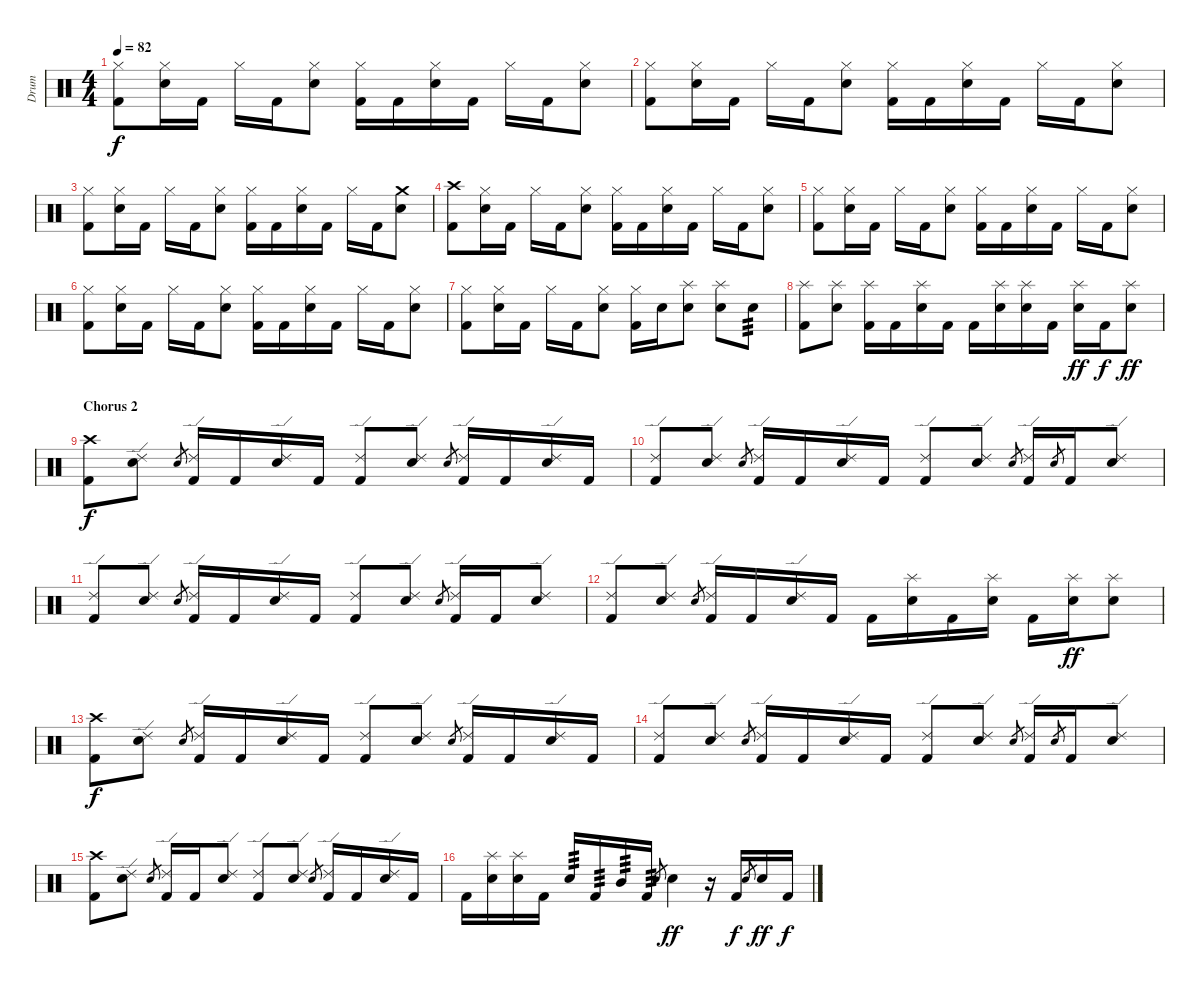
\track ("Drum" "Drum") {instrument percussion}
\staff {score}
\articulation defaults
\ts (4 4)
\tempo 82
\clef neutral
\ks c
("Hi-Hat (closed)" "Kick (hit) 2").8{dy f} ("Hi-Hat (closed)" "Electric Snare (hit)").16 "Kick (hit) 2".16 "Hi-Hat (closed)".16 "Kick (hit) 2".16 ("Hi-Hat (closed)" "Electric Snare (hit)").8 ("Hi-Hat (closed)" "Kick (hit) 2").16 "Kick (hit) 2".16 ("Hi-Hat (closed)" "Electric Snare (hit)").16 "Kick (hit) 2".16 "Hi-Hat (closed)".16 "Kick (hit) 2".16 ("Hi-Hat (closed)" "Electric Snare (hit)").8 |
("Hi-Hat (closed)" "Kick (hit) 2").8 ("Hi-Hat (closed)" "Electric Snare (hit)").16 "Kick (hit) 2".16 "Hi-Hat (closed)".16 "Kick (hit) 2".16 ("Hi-Hat (closed)" "Electric Snare (hit)").8 ("Hi-Hat (closed)" "Kick (hit) 2").16 "Kick (hit) 2".16 ("Hi-Hat (closed)" "Electric Snare (hit)").16 "Kick (hit) 2".16 "Hi-Hat (closed)".16 "Kick (hit) 2".16 ("Hi-Hat (closed)" "Electric Snare (hit)").8 |
("Hi-Hat (closed)" "Kick (hit) 2").8 ("Hi-Hat (closed)" "Electric Snare (hit)").16 "Kick (hit) 2".16 "Hi-Hat (closed)".16 "Kick (hit) 2".16 ("Hi-Hat (closed)" "Electric Snare (hit)").8 ("Hi-Hat (closed)" "Kick (hit) 2").16 "Kick (hit) 2".16 ("Hi-Hat (closed)" "Electric Snare (hit)").16 "Kick (hit) 2".16 "Hi-Hat (closed)".16 "Kick (hit) 2".16 ("Electric Snare (hit)" "Crash medium (hit)").8 |
\section ("" "")
("Kick (hit) 2" "Crash high (hit)").8 ("Hi-Hat (closed)" "Electric Snare (hit)").16 "Kick (hit) 2".16 "Hi-Hat (closed)".16 "Kick (hit) 2".16 ("Hi-Hat (closed)" "Electric Snare (hit)").8 ("Hi-Hat (closed)" "Kick (hit) 2").16 "Kick (hit) 2".16 ("Hi-Hat (closed)" "Electric Snare (hit)").16 "Kick (hit) 2".16 "Hi-Hat (closed)".16 "Kick (hit) 2".16 ("Hi-Hat (closed)" "Electric Snare (hit)").8 |
("Hi-Hat (closed)" "Kick (hit) 2").8 ("Hi-Hat (closed)" "Electric Snare (hit)").16 "Kick (hit) 2".16 "Hi-Hat (closed)".16 "Kick (hit) 2".16 ("Hi-Hat (closed)" "Electric Snare (hit)").8 ("Hi-Hat (closed)" "Kick (hit) 2").16 "Kick (hit) 2".16 ("Hi-Hat (closed)" "Electric Snare (hit)").16 "Kick (hit) 2".16 "Hi-Hat (closed)".16 "Kick (hit) 2".16 ("Hi-Hat (closed)" "Electric Snare (hit)").8 |
("Hi-Hat (closed)" "Kick (hit) 2").8 ("Hi-Hat (closed)" "Electric Snare (hit)").16 "Kick (hit) 2".16 "Hi-Hat (closed)".16 "Kick (hit) 2".16 ("Hi-Hat (closed)" "Electric Snare (hit)").8 ("Hi-Hat (closed)" "Kick (hit) 2").16 "Kick (hit) 2".16 ("Hi-Hat (closed)" "Electric Snare (hit)").16 "Kick (hit) 2".16 "Hi-Hat (closed)".16 "Kick (hit) 2".16 ("Hi-Hat (closed)" "Electric Snare (hit)").8 |
("Hi-Hat (closed)" "Kick (hit) 2").8 ("Hi-Hat (closed)" "Electric Snare (hit)").16 "Kick (hit) 2".16 "Hi-Hat (closed)".16 "Kick (hit) 2".16 ("Hi-Hat (closed)" "Electric Snare (hit)").8 ("Hi-Hat (closed)" "Kick (hit) 2").16 "Electric Snare (hit)".16 ("Splash (hit)" "Electric Snare (hit)").8 ("Splash (hit)" "Electric Snare (hit)").8 "Electric Snare (hit)".8{tp 3} |
("Splash (hit)" "Kick (hit) 2").8 ("Splash (hit)" "Electric Snare (hit)").8 ("Splash (hit)" "Kick (hit) 2").16 "Kick (hit) 2".16 ("Splash (hit)" "Electric Snare (hit)").16 "Kick (hit) 2".16 "Kick (hit) 2".16 ("Splash (hit)" "Electric Snare (hit)").16 ("Splash (hit)" "Electric Snare (hit)").16 "Kick (hit) 2".16 ("Splash (hit)" "Electric Snare (hit)").16{dy ff} "Kick (hit) 2".16{dy f} ("Splash (hit)" "Electric Snare (hit)").8{dy ff} |
\section ("" "Chorus 2")
("Kick (hit) 2" "Crash high (hit)").8{dy f} ("Ride (edge) 2" "Electric Snare (hit)").8 "Electric Snare (hit)".8{gr} ("Ride (edge) 2" "Kick (hit) 2").16 "Kick (hit) 2".16 ("Ride (edge) 2" "Electric Snare (hit)").16 "Kick (hit) 2".16 ("Ride (edge) 2" "Kick (hit) 2").8 ("Ride (edge) 2" "Electric Snare (hit)").8 "Electric Snare (hit)".8{gr} ("Ride (edge) 2" "Kick (hit) 2").16 "Kick (hit) 2".16 ("Ride (edge) 2" "Electric Snare (hit)").16 "Kick (hit) 2".16 |
("Ride (edge) 2" "Kick (hit) 2").8 ("Ride (edge) 2" "Electric Snare (hit)").8 "Electric Snare (hit)".8{gr} ("Ride (edge) 2" "Kick (hit) 2").16 "Kick (hit) 2".16 ("Ride (edge) 2" "Electric Snare (hit)").16 "Kick (hit) 2".16 ("Ride (edge) 2" "Kick (hit) 2").8 ("Ride (edge) 2" "Electric Snare (hit)").8 "Electric Snare (hit)".8{gr} ("Ride (edge) 2" "Kick (hit) 2").16 "Electric Snare (hit)".8{gr} "Kick (hit) 2".16 ("Ride (edge) 2" "Electric Snare (hit)").8 |
("Ride (edge) 2" "Kick (hit) 2").8 ("Ride (edge) 2" "Electric Snare (hit)").8 "Electric Snare (hit)".8{gr} ("Ride (edge) 2" "Kick (hit) 2").16 "Kick (hit) 2".16 ("Ride (edge) 2" "Electric Snare (hit)").16 "Kick (hit) 2".16 ("Ride (edge) 2" "Kick (hit) 2").8 ("Ride (edge) 2" "Electric Snare (hit)").8 "Electric Snare (hit)".8{gr} ("Ride (edge) 2" "Kick (hit) 2").16 "Kick (hit) 2".16 ("Ride (edge) 2" "Electric Snare (hit)").8 |
("Ride (edge) 2" "Kick (hit) 2").8 ("Ride (edge) 2" "Electric Snare (hit)").8 "Electric Snare (hit)".8{gr} ("Ride (edge) 2" "Kick (hit) 2").16 "Kick (hit) 2".16 ("Ride (edge) 2" "Electric Snare (hit)").16 "Kick (hit) 2".16 "Kick (hit) 2".16 ("Splash (hit)" "Electric Snare (hit)").16 "Kick (hit) 2".16 ("Splash (hit)" "Electric Snare (hit)").16 "Kick (hit) 2".16 ("Splash (hit)" "Electric Snare (hit)").16{dy ff} ("Splash (hit)" "Electric Snare (hit)").8 |
\section ("" "")
("Kick (hit) 2" "Crash high (hit)").8{dy f} ("Ride (edge) 2" "Electric Snare (hit)").8 "Electric Snare (hit)".8{gr} ("Ride (edge) 2" "Kick (hit) 2").16 "Kick (hit) 2".16 ("Ride (edge) 2" "Electric Snare (hit)").16 "Kick (hit) 2".16 ("Ride (edge) 2" "Kick (hit) 2").8 ("Ride (edge) 2" "Electric Snare (hit)").8 "Electric Snare (hit)".8{gr} ("Ride (edge) 2" "Kick (hit) 2").16 "Kick (hit) 2".16 ("Ride (edge) 2" "Electric Snare (hit)").16 "Kick (hit) 2".16 |
("Ride (edge) 2" "Kick (hit) 2").8 ("Ride (edge) 2" "Electric Snare (hit)").8 "Electric Snare (hit)".8{gr} ("Ride (edge) 2" "Kick (hit) 2").16 "Kick (hit) 2".16 ("Ride (edge) 2" "Electric Snare (hit)").16 "Kick (hit) 2".16 ("Ride (edge) 2" "Kick (hit) 2").8 ("Ride (edge) 2" "Electric Snare (hit)").8 "Electric Snare (hit)".8{gr} ("Ride (edge) 2" "Kick (hit) 2").16 "Electric Snare (hit)".8{gr} "Kick (hit) 2".16 ("Ride (edge) 2" "Electric Snare (hit)").8 |
("Kick (hit) 2" "Crash high (hit)").8 ("Ride (edge) 2" "Electric Snare (hit)").8 "Electric Snare (hit)".8{gr} ("Ride (edge) 2" "Kick (hit) 2").16 "Kick (hit) 2".16 ("Ride (edge) 2" "Electric Snare (hit)").8 ("Ride (edge) 2" "Kick (hit) 2").8 ("Ride (edge) 2" "Electric Snare (hit)").8 "Electric Snare (hit)".8{gr} ("Ride (edge) 2" "Kick (hit) 2").16 "Kick (hit) 2".16 ("Ride (edge) 2" "Electric Snare (hit)").16 "Kick (hit) 2".16 |
"Kick (hit) 2".16 ("Splash (hit)" "Electric Snare (hit)").16 ("Splash (hit)" "Electric Snare (hit)").16 "Kick (hit) 2".16 "Electric Snare (hit)".16{tp 3} "Kick (hit) 2".16{tp 3} "Mid Tom (hit)".16{tp 3} "Kick (hit) 2".16{tp 3} "Electric Snare (hit)".8{gr} "Electric Snare (hit)".4{dy ff} r.16 "Kick (hit) 2".16{dy f} "Electric Snare (hit)".8{gr} "Electric Snare (hit)".16{dy ff} "Kick (hit) 2".16{dy f}
